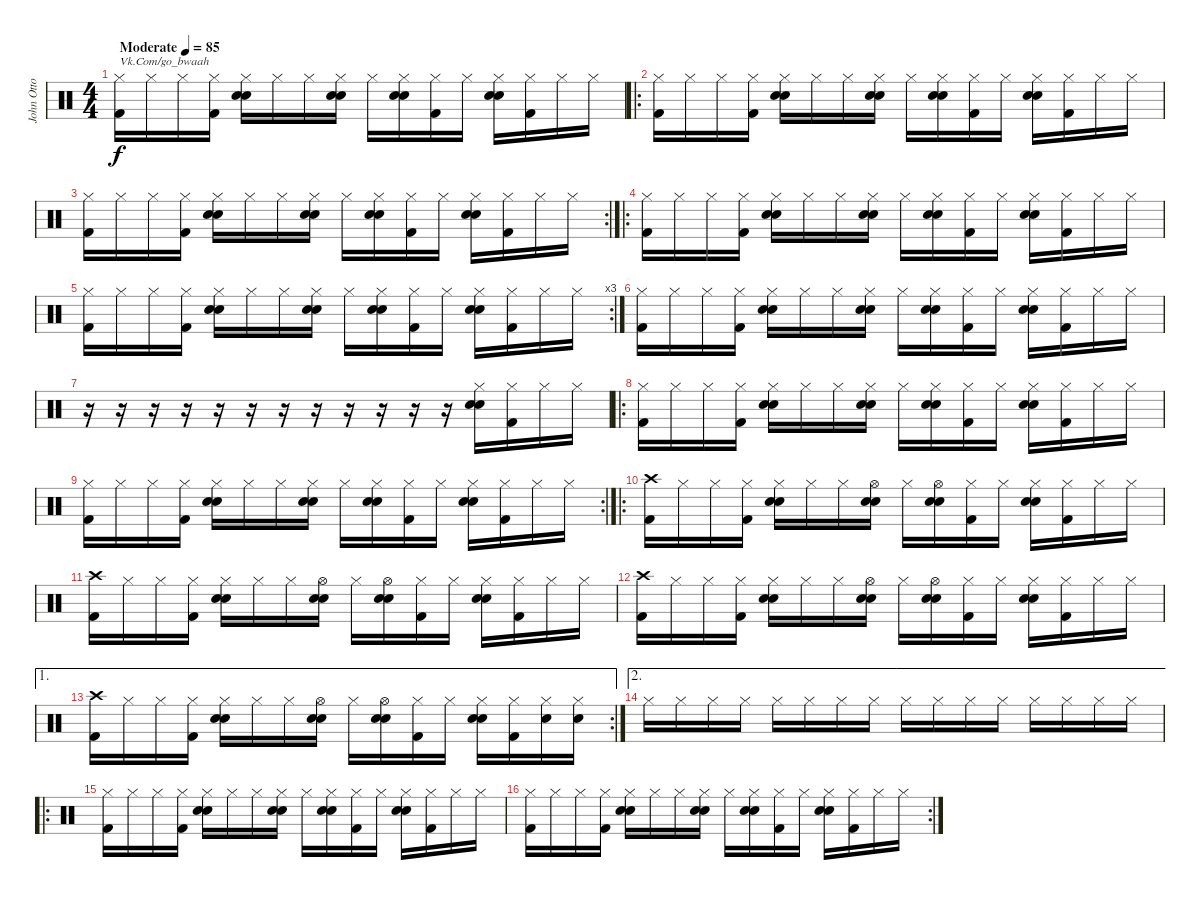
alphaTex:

\track ("John Otto" "John Otto") {instrument percussion}
\staff {score}
\articulation defaults
\ts (4 4)
\tempo (85 "Moderate")
\clef neutral
\ks c
("Hi-Hat (closed)" "Kick (hit) 2").16{txt "Vk.Com/go_bwaah" dy f} "Hi-Hat (closed)".16 "Hi-Hat (closed)".16 ("Hi-Hat (closed)" "Kick (hit) 2").16 ("Hi-Hat (closed)" "Electric Snare (hit)" "Hand Clap (hit)").16 "Hi-Hat (closed)".16 "Hi-Hat (closed)".16 ("Hi-Hat (closed)" "Hand Clap (hit)" "Electric Snare (hit)").16 "Hi-Hat (closed)".16 ("Hi-Hat (closed)" "Hand Clap (hit)" "Electric Snare (hit)").16 ("Hi-Hat (closed)" "Kick (hit) 2").16 "Hi-Hat (closed)".16 ("Hi-Hat (closed)" "Hand Clap (hit)" "Electric Snare (hit)").16 ("Hi-Hat (closed)" "Kick (hit) 2").16 "Hi-Hat (closed)".16 "Hi-Hat (closed)".16 |
\ro
("Hi-Hat (closed)" "Kick (hit) 2").16 "Hi-Hat (closed)".16 "Hi-Hat (closed)".16 ("Hi-Hat (closed)" "Kick (hit) 2").16 ("Hi-Hat (closed)" "Hand Clap (hit)" "Electric Snare (hit)").16 "Hi-Hat (closed)".16 "Hi-Hat (closed)".16 ("Hi-Hat (closed)" "Hand Clap (hit)" "Electric Snare (hit)").16 "Hi-Hat (closed)".16 ("Hi-Hat (closed)" "Hand Clap (hit)" "Electric Snare (hit)").16 ("Hi-Hat (closed)" "Kick (hit) 2").16 "Hi-Hat (closed)".16 ("Hi-Hat (closed)" "Hand Clap (hit)" "Electric Snare (hit)").16 ("Hi-Hat (closed)" "Kick (hit) 2").16 "Hi-Hat (closed)".16 "Hi-Hat (closed)".16 |
\rc 2
("Hi-Hat (closed)" "Kick (hit) 2").16 "Hi-Hat (closed)".16 "Hi-Hat (closed)".16 ("Hi-Hat (closed)" "Kick (hit) 2").16 ("Hi-Hat (closed)" "Hand Clap (hit)" "Electric Snare (hit)").16 "Hi-Hat (closed)".16 "Hi-Hat (closed)".16 ("Hi-Hat (closed)" "Hand Clap (hit)" "Electric Snare (hit)").16 "Hi-Hat (closed)".16 ("Hi-Hat (closed)" "Hand Clap (hit)" "Electric Snare (hit)").16 ("Hi-Hat (closed)" "Kick (hit) 2").16 "Hi-Hat (closed)".16 ("Hi-Hat (closed)" "Hand Clap (hit)" "Electric Snare (hit)").16 ("Hi-Hat (closed)" "Kick (hit) 2").16 "Hi-Hat (closed)".16 "Hi-Hat (closed)".16 |
\ro
("Hi-Hat (closed)" "Kick (hit) 2").16 "Hi-Hat (closed)".16 "Hi-Hat (closed)".16 ("Hi-Hat (closed)" "Kick (hit) 2").16 ("Hi-Hat (closed)" "Hand Clap (hit)" "Electric Snare (hit)").16 "Hi-Hat (closed)".16 "Hi-Hat (closed)".16 ("Hi-Hat (closed)" "Hand Clap (hit)" "Electric Snare (hit)").16 "Hi-Hat (closed)".16 ("Hi-Hat (closed)" "Hand Clap (hit)" "Electric Snare (hit)").16 ("Hi-Hat (closed)" "Kick (hit) 2").16 "Hi-Hat (closed)".16 ("Hi-Hat (closed)" "Hand Clap (hit)" "Electric Snare (hit)").16 ("Hi-Hat (closed)" "Kick (hit) 2").16 "Hi-Hat (closed)".16 "Hi-Hat (closed)".16 |
\rc 3
("Hi-Hat (closed)" "Kick (hit) 2").16 "Hi-Hat (closed)".16 "Hi-Hat (closed)".16 ("Hi-Hat (closed)" "Kick (hit) 2").16 ("Hi-Hat (closed)" "Hand Clap (hit)" "Electric Snare (hit)").16 "Hi-Hat (closed)".16 "Hi-Hat (closed)".16 ("Hi-Hat (closed)" "Hand Clap (hit)" "Electric Snare (hit)").16 "Hi-Hat (closed)".16 ("Hi-Hat (closed)" "Hand Clap (hit)" "Electric Snare (hit)").16 ("Hi-Hat (closed)" "Kick (hit) 2").16 "Hi-Hat (closed)".16 ("Hi-Hat (closed)" "Hand Clap (hit)" "Electric Snare (hit)").16 ("Hi-Hat (closed)" "Kick (hit) 2").16 "Hi-Hat (closed)".16 "Hi-Hat (closed)".16 |
("Hi-Hat (closed)" "Kick (hit) 2").16 "Hi-Hat (closed)".16 "Hi-Hat (closed)".16 ("Hi-Hat (closed)" "Kick (hit) 2").16 ("Hi-Hat (closed)" "Hand Clap (hit)" "Electric Snare (hit)").16 "Hi-Hat (closed)".16 "Hi-Hat (closed)".16 ("Hi-Hat (closed)" "Hand Clap (hit)" "Electric Snare (hit)").16 "Hi-Hat (closed)".16 ("Hi-Hat (closed)" "Hand Clap (hit)" "Electric Snare (hit)").16 ("Hi-Hat (closed)" "Kick (hit) 2").16 "Hi-Hat (closed)".16 ("Hi-Hat (closed)" "Hand Clap (hit)" "Electric Snare (hit)").16 ("Hi-Hat (closed)" "Kick (hit) 2").16 "Hi-Hat (closed)".16 "Hi-Hat (closed)".16 |
r.16 r.16 r.16 r.16 r.16 r.16 r.16 r.16 r.16 r.16 r.16 r.16 ("Hi-Hat (closed)" "Hand Clap (hit)" "Electric Snare (hit)").16 ("Hi-Hat (closed)" "Kick (hit) 2").16 "Hi-Hat (closed)".16 "Hi-Hat (closed)".16 |
\ro
("Hi-Hat (closed)" "Kick (hit) 2").16 "Hi-Hat (closed)".16 "Hi-Hat (closed)".16 ("Hi-Hat (closed)" "Kick (hit) 2").16 ("Hi-Hat (closed)" "Hand Clap (hit)" "Electric Snare (hit)").16 "Hi-Hat (closed)".16 "Hi-Hat (closed)".16 ("Hi-Hat (closed)" "Hand Clap (hit)" "Electric Snare (hit)").16 "Hi-Hat (closed)".16 ("Hi-Hat (closed)" "Hand Clap (hit)" "Electric Snare (hit)").16 ("Hi-Hat (closed)" "Kick (hit) 2").16 "Hi-Hat (closed)".16 ("Hi-Hat (closed)" "Hand Clap (hit)" "Electric Snare (hit)").16 ("Hi-Hat (closed)" "Kick (hit) 2").16 "Hi-Hat (closed)".16 "Hi-Hat (closed)".16 |
\rc 2
("Hi-Hat (closed)" "Kick (hit) 2").16 "Hi-Hat (closed)".16 "Hi-Hat (closed)".16 ("Hi-Hat (closed)" "Kick (hit) 2").16 ("Hi-Hat (closed)" "Hand Clap (hit)" "Electric Snare (hit)").16 "Hi-Hat (closed)".16 "Hi-Hat (closed)".16 ("Hi-Hat (closed)" "Hand Clap (hit)" "Electric Snare (hit)").16 "Hi-Hat (closed)".16 ("Hi-Hat (closed)" "Hand Clap (hit)" "Electric Snare (hit)").16 ("Hi-Hat (closed)" "Kick (hit) 2").16 "Hi-Hat (closed)".16 ("Hi-Hat (closed)" "Hand Clap (hit)" "Electric Snare (hit)").16 ("Hi-Hat (closed)" "Kick (hit) 2").16 "Hi-Hat (closed)".16 "Hi-Hat (closed)".16 |
\ro
("Crash high (hit)" "Kick (hit) 2").16 "Hi-Hat (closed)".16 "Hi-Hat (closed)".16 ("Hi-Hat (closed)" "Kick (hit) 2").16 ("Hi-Hat (closed)" "Hand Clap (hit)" "Electric Snare (hit)").16 "Hi-Hat (closed)".16 "Hi-Hat (closed)".16 ("Hi-Hat (open)" "Hand Clap (hit)" "Electric Snare (hit)").16 "Hi-Hat (closed)".16 ("Hi-Hat (open)" "Hand Clap (hit)" "Electric Snare (hit)").16 ("Hi-Hat (closed)" "Kick (hit) 2").16 "Hi-Hat (closed)".16 ("Hi-Hat (closed)" "Hand Clap (hit)" "Electric Snare (hit)").16 ("Hi-Hat (closed)" "Kick (hit) 2").16 "Hi-Hat (closed)".16 "Hi-Hat (closed)".16 |
("Crash high (hit)" "Kick (hit) 2").16 "Hi-Hat (closed)".16 "Hi-Hat (closed)".16 ("Hi-Hat (closed)" "Kick (hit) 2").16 ("Hi-Hat (closed)" "Hand Clap (hit)" "Electric Snare (hit)").16 "Hi-Hat (closed)".16 "Hi-Hat (closed)".16 ("Hi-Hat (open)" "Hand Clap (hit)" "Electric Snare (hit)").16 "Hi-Hat (closed)".16 ("Hi-Hat (open)" "Hand Clap (hit)" "Electric Snare (hit)").16 ("Hi-Hat (closed)" "Kick (hit) 2").16 "Hi-Hat (closed)".16 ("Hi-Hat (closed)" "Hand Clap (hit)" "Electric Snare (hit)").16 ("Hi-Hat (closed)" "Kick (hit) 2").16 "Hi-Hat (closed)".16 "Hi-Hat (closed)".16 |
("Crash high (hit)" "Kick (hit) 2").16 "Hi-Hat (closed)".16 "Hi-Hat (closed)".16 ("Hi-Hat (closed)" "Kick (hit) 2").16 ("Hi-Hat (closed)" "Hand Clap (hit)" "Electric Snare (hit)").16 "Hi-Hat (closed)".16 "Hi-Hat (closed)".16 ("Hi-Hat (open)" "Hand Clap (hit)" "Electric Snare (hit)").16 "Hi-Hat (closed)".16 ("Hi-Hat (open)" "Hand Clap (hit)" "Electric Snare (hit)").16 ("Hi-Hat (closed)" "Kick (hit) 2").16 "Hi-Hat (closed)".16 ("Hi-Hat (closed)" "Hand Clap (hit)" "Electric Snare (hit)").16 ("Hi-Hat (closed)" "Kick (hit) 2").16 "Hi-Hat (closed)".16 "Hi-Hat (closed)".16 |
\ae 1
\rc 2
("Crash high (hit)" "Kick (hit) 2").16 "Hi-Hat (closed)".16 "Hi-Hat (closed)".16 ("Hi-Hat (closed)" "Kick (hit) 2").16 ("Hi-Hat (closed)" "Hand Clap (hit)" "Electric Snare (hit)").16 "Hi-Hat (closed)".16 "Hi-Hat (closed)".16 ("Hi-Hat (open)" "Hand Clap (hit)" "Electric Snare (hit)").16 "Hi-Hat (closed)".16 ("Hi-Hat (open)" "Hand Clap (hit)" "Electric Snare (hit)").16 ("Hi-Hat (closed)" "Kick (hit) 2").16 "Hi-Hat (closed)".16 ("Hi-Hat (closed)" "Hand Clap (hit)" "Electric Snare (hit)").16 ("Hi-Hat (closed)" "Kick (hit) 2").16 ("Hi-Hat (closed)" "Electric Snare (hit)").16 ("Hi-Hat (closed)" "Electric Snare (hit)").16 |
\ae 2 "Hi-Hat (closed)".16 "Hi-Hat (closed)".16 "Hi-Hat (closed)".16 "Hi-Hat (closed)".16 "Hi-Hat (closed)".16 "Hi-Hat (closed)".16 "Hi-Hat (closed)".16 "Hi-Hat (closed)".16 "Hi-Hat (closed)".16 "Hi-Hat (closed)".16 "Hi-Hat (closed)".16 "Hi-Hat (closed)".16 "Hi-Hat (closed)".16 "Hi-Hat (closed)".16 "Hi-Hat (closed)".16 "Hi-Hat (closed)".16
|
\ro
("Hi-Hat (closed)" "Kick (hit) 2").16 "Hi-Hat (closed)".16 "Hi-Hat (closed)".16 ("Hi-Hat (closed)" "Kick (hit) 2").16 ("Hi-Hat (closed)" "Hand Clap (hit)" "Electric Snare (hit)").16 "Hi-Hat (closed)".16 "Hi-Hat (closed)".16 ("Hi-Hat (closed)" "Hand Clap (hit)" "Electric Snare (hit)").16 "Hi-Hat (closed)".16 ("Hi-Hat (closed)" "Hand Clap (hit)" "Electric Snare (hit)").16 ("Hi-Hat (closed)" "Kick (hit) 2").16 "Hi-Hat (closed)".16 ("Hi-Hat (closed)" "Hand Clap (hit)" "Electric Snare (hit)").16 ("Hi-Hat (closed)" "Kick (hit) 2").16 "Hi-Hat (closed)".16 "Hi-Hat (closed)".16 |
\rc 2
("Hi-Hat (closed)" "Kick (hit) 2").16 "Hi-Hat (closed)".16 "Hi-Hat (closed)".16 ("Hi-Hat (closed)" "Kick (hit) 2").16 ("Hi-Hat (closed)" "Hand Clap (hit)" "Electric Snare (hit)").16 "Hi-Hat (closed)".16 "Hi-Hat (closed)".16 ("Hi-Hat (closed)" "Hand Clap (hit)" "Electric Snare (hit)").16 "Hi-Hat (closed)".16 ("Hi-Hat (closed)" "Hand Clap (hit)" "Electric Snare (hit)").16 ("Hi-Hat (closed)" "Kick (hit) 2").16 "Hi-Hat (closed)".16 ("Hi-Hat (closed)" "Hand Clap (hit)" "Electric Snare (hit)").16 ("Hi-Hat (closed)" "Kick (hit) 2").16 "Hi-Hat (closed)".16 "Hi-Hat (closed)".16
